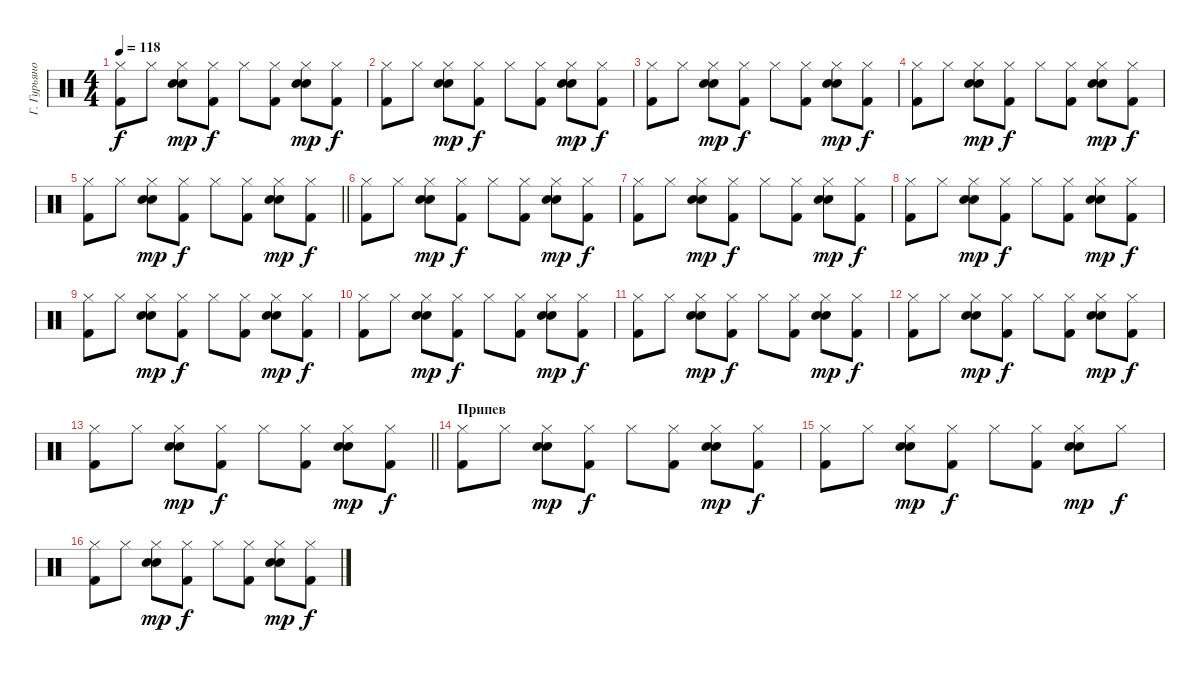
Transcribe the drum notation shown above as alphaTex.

\track ("Г. Гурьянов" "Г. Гурьяно") {instrument percussion}
\staff
\articulation defaults
\ts (4 4)
\tempo 118
\clef neutral
\ks c
("Hi-Hat (closed)" "Kick (hit) 2").8{dy f} "Hi-Hat (closed)".8 ("Hi-Hat (closed)" "Electric Snare (hit)" "Snare (hit) 2").8{dy mp} ("Hi-Hat (closed)" "Kick (hit) 2").8{dy f} "Hi-Hat (closed)".8 ("Hi-Hat (closed)" "Kick (hit) 2").8 ("Hi-Hat (closed)" "Electric Snare (hit)" "Snare (hit) 2").8{dy mp} ("Hi-Hat (closed)" "Kick (hit) 2").8{dy f} |
("Hi-Hat (closed)" "Kick (hit) 2").8 "Hi-Hat (closed)".8 ("Hi-Hat (closed)" "Electric Snare (hit)" "Snare (hit) 2").8{dy mp} ("Hi-Hat (closed)" "Kick (hit) 2").8{dy f} "Hi-Hat (closed)".8 ("Hi-Hat (closed)" "Kick (hit) 2").8 ("Hi-Hat (closed)" "Electric Snare (hit)" "Snare (hit) 2").8{dy mp} ("Hi-Hat (closed)" "Kick (hit) 2").8{dy f} |
("Hi-Hat (closed)" "Kick (hit) 2").8 "Hi-Hat (closed)".8 ("Hi-Hat (closed)" "Electric Snare (hit)" "Snare (hit) 2").8{dy mp} ("Hi-Hat (closed)" "Kick (hit) 2").8{dy f} "Hi-Hat (closed)".8 ("Hi-Hat (closed)" "Kick (hit) 2").8 ("Hi-Hat (closed)" "Electric Snare (hit)" "Snare (hit) 2").8{dy mp} ("Hi-Hat (closed)" "Kick (hit) 2").8{dy f} |
("Hi-Hat (closed)" "Kick (hit) 2").8 "Hi-Hat (closed)".8 ("Hi-Hat (closed)" "Electric Snare (hit)" "Snare (hit) 2").8{dy mp} ("Hi-Hat (closed)" "Kick (hit) 2").8{dy f} "Hi-Hat (closed)".8 ("Hi-Hat (closed)" "Kick (hit) 2").8 ("Hi-Hat (closed)" "Electric Snare (hit)" "Snare (hit) 2").8{dy mp} ("Hi-Hat (closed)" "Kick (hit) 2").8{dy f} |
\barLineRight lightlight
("Hi-Hat (closed)" "Kick (hit) 2").8 "Hi-Hat (closed)".8 ("Hi-Hat (closed)" "Electric Snare (hit)" "Snare (hit) 2").8{dy mp} ("Hi-Hat (closed)" "Kick (hit) 2").8{dy f} "Hi-Hat (closed)".8 ("Hi-Hat (closed)" "Kick (hit) 2").8 ("Hi-Hat (closed)" "Electric Snare (hit)" "Snare (hit) 2").8{dy mp} ("Hi-Hat (closed)" "Kick (hit) 2").8{dy f} |
("Hi-Hat (closed)" "Kick (hit) 2").8 "Hi-Hat (closed)".8 ("Hi-Hat (closed)" "Electric Snare (hit)" "Snare (hit) 2").8{dy mp} ("Hi-Hat (closed)" "Kick (hit) 2").8{dy f} "Hi-Hat (closed)".8 ("Hi-Hat (closed)" "Kick (hit) 2").8 ("Hi-Hat (closed)" "Electric Snare (hit)" "Snare (hit) 2").8{dy mp} ("Hi-Hat (closed)" "Kick (hit) 2").8{dy f} |
("Hi-Hat (closed)" "Kick (hit) 2").8 "Hi-Hat (closed)".8 ("Hi-Hat (closed)" "Electric Snare (hit)" "Snare (hit) 2").8{dy mp} ("Hi-Hat (closed)" "Kick (hit) 2").8{dy f} "Hi-Hat (closed)".8 ("Hi-Hat (closed)" "Kick (hit) 2").8 ("Hi-Hat (closed)" "Electric Snare (hit)" "Snare (hit) 2").8{dy mp} ("Hi-Hat (closed)" "Kick (hit) 2").8{dy f} |
("Hi-Hat (closed)" "Kick (hit) 2").8 "Hi-Hat (closed)".8 ("Hi-Hat (closed)" "Electric Snare (hit)" "Snare (hit) 2").8{dy mp} ("Hi-Hat (closed)" "Kick (hit) 2").8{dy f} "Hi-Hat (closed)".8 ("Hi-Hat (closed)" "Kick (hit) 2").8 ("Hi-Hat (closed)" "Electric Snare (hit)" "Snare (hit) 2").8{dy mp} ("Hi-Hat (closed)" "Kick (hit) 2").8{dy f} |
("Hi-Hat (closed)" "Kick (hit) 2").8 "Hi-Hat (closed)".8 ("Hi-Hat (closed)" "Electric Snare (hit)" "Snare (hit) 2").8{dy mp} ("Hi-Hat (closed)" "Kick (hit) 2").8{dy f} "Hi-Hat (closed)".8 ("Hi-Hat (closed)" "Kick (hit) 2").8 ("Hi-Hat (closed)" "Electric Snare (hit)" "Snare (hit) 2").8{dy mp} ("Hi-Hat (closed)" "Kick (hit) 2").8{dy f} |
("Hi-Hat (closed)" "Kick (hit) 2").8 "Hi-Hat (closed)".8 ("Hi-Hat (closed)" "Electric Snare (hit)" "Snare (hit) 2").8{dy mp} ("Hi-Hat (closed)" "Kick (hit) 2").8{dy f} "Hi-Hat (closed)".8 ("Hi-Hat (closed)" "Kick (hit) 2").8 ("Hi-Hat (closed)" "Electric Snare (hit)" "Snare (hit) 2").8{dy mp} ("Hi-Hat (closed)" "Kick (hit) 2").8{dy f} |
("Hi-Hat (closed)" "Kick (hit) 2").8 "Hi-Hat (closed)".8 ("Hi-Hat (closed)" "Electric Snare (hit)" "Snare (hit) 2").8{dy mp} ("Hi-Hat (closed)" "Kick (hit) 2").8{dy f} "Hi-Hat (closed)".8 ("Hi-Hat (closed)" "Kick (hit) 2").8 ("Hi-Hat (closed)" "Electric Snare (hit)" "Snare (hit) 2").8{dy mp} ("Hi-Hat (closed)" "Kick (hit) 2").8{dy f} |
("Hi-Hat (closed)" "Kick (hit) 2").8 "Hi-Hat (closed)".8 ("Hi-Hat (closed)" "Electric Snare (hit)" "Snare (hit) 2").8{dy mp} ("Hi-Hat (closed)" "Kick (hit) 2").8{dy f} "Hi-Hat (closed)".8 ("Hi-Hat (closed)" "Kick (hit) 2").8 ("Hi-Hat (closed)" "Electric Snare (hit)" "Snare (hit) 2").8{dy mp} ("Hi-Hat (closed)" "Kick (hit) 2").8{dy f} |
\barLineRight lightlight
("Hi-Hat (closed)" "Kick (hit) 2").8 "Hi-Hat (closed)".8 ("Hi-Hat (closed)" "Electric Snare (hit)" "Snare (hit) 2").8{dy mp} ("Hi-Hat (closed)" "Kick (hit) 2").8{dy f} "Hi-Hat (closed)".8 ("Hi-Hat (closed)" "Kick (hit) 2").8 ("Hi-Hat (closed)" "Electric Snare (hit)" "Snare (hit) 2").8{dy mp} ("Hi-Hat (closed)" "Kick (hit) 2").8{dy f} |
\section ("" "Припев")
("Hi-Hat (closed)" "Kick (hit) 2").8 "Hi-Hat (closed)".8 ("Hi-Hat (closed)" "Electric Snare (hit)" "Snare (hit) 2").8{dy mp} ("Hi-Hat (closed)" "Kick (hit) 2").8{dy f} "Hi-Hat (closed)".8 ("Hi-Hat (closed)" "Kick (hit) 2").8 ("Hi-Hat (closed)" "Electric Snare (hit)" "Snare (hit) 2").8{dy mp} ("Hi-Hat (closed)" "Kick (hit) 2").8{dy f} |
("Hi-Hat (closed)" "Kick (hit) 2").8 "Hi-Hat (closed)".8 ("Hi-Hat (closed)" "Electric Snare (hit)" "Snare (hit) 2").8{dy mp} ("Hi-Hat (closed)" "Kick (hit) 2").8{dy f} "Hi-Hat (closed)".8 ("Hi-Hat (closed)" "Kick (hit) 2").8 ("Hi-Hat (closed)" "Electric Snare (hit)" "Snare (hit) 2").8{dy mp} "Hi-Hat (closed)".8{dy f} |
("Hi-Hat (closed)" "Kick (hit) 2").8 "Hi-Hat (closed)".8 ("Hi-Hat (closed)" "Electric Snare (hit)" "Snare (hit) 2").8{dy mp} ("Hi-Hat (closed)" "Kick (hit) 2").8{dy f} "Hi-Hat (closed)".8 ("Hi-Hat (closed)" "Kick (hit) 2").8 ("Hi-Hat (closed)" "Electric Snare (hit)" "Snare (hit) 2").8{dy mp} ("Hi-Hat (closed)" "Kick (hit) 2").8{dy f}
